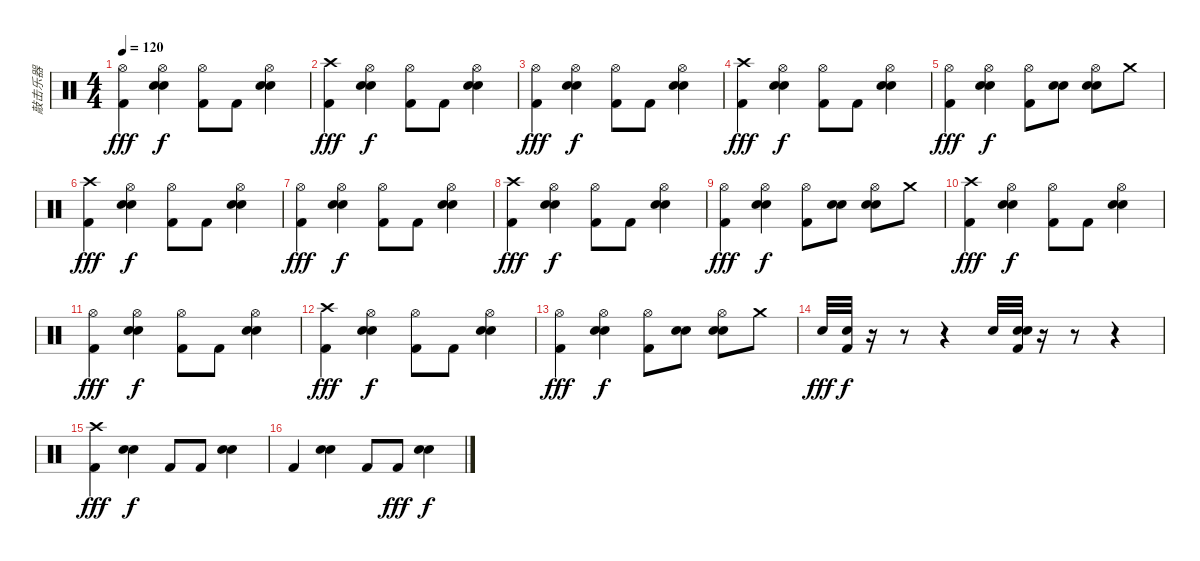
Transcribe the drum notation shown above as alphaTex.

\track ("敲击乐器" "敲击乐器") {instrument percussion}
\staff {score}
\articulation defaults
\ts (4 4)
\tempo 120
\clef neutral
\ks c
("Hi-Hat (open)" "Kick (hit) 2").4{dy fff} ("Hi-Hat (open)" "Electric Snare (hit)" "Metronome (bell)").4{dy f} ("Hi-Hat (open)" "Kick (hit) 2").8 "Kick (hit) 2".8 ("Hi-Hat (open)" "Electric Snare (hit)" "Metronome (bell)").4 |
("Crash high (hit)" "Kick (hit) 2").4{dy fff} ("Hi-Hat (open)" "Electric Snare (hit)" "Metronome (bell)").4{dy f} ("Hi-Hat (open)" "Kick (hit) 2").8 "Kick (hit) 2".8 ("Hi-Hat (open)" "Electric Snare (hit)" "Metronome (bell)").4 |
("Hi-Hat (open)" "Kick (hit) 2").4{dy fff} ("Hi-Hat (open)" "Electric Snare (hit)" "Metronome (bell)").4{dy f} ("Hi-Hat (open)" "Kick (hit) 2").8 "Kick (hit) 2".8 ("Hi-Hat (open)" "Electric Snare (hit)" "Metronome (bell)").4 |
("Crash high (hit)" "Kick (hit) 2").4{dy fff} ("Hi-Hat (open)" "Electric Snare (hit)" "Metronome (bell)").4{dy f} ("Hi-Hat (open)" "Kick (hit) 2").8 "Kick (hit) 2".8 ("Hi-Hat (open)" "Electric Snare (hit)" "Metronome (bell)").4 |
("Hi-Hat (open)" "Kick (hit) 2").4{dy fff} ("Hi-Hat (open)" "Electric Snare (hit)" "Metronome (bell)").4{dy f} ("Hi-Hat (open)" "Kick (hit) 2").8 ("Electric Snare (hit)" "Metronome (bell)").8 ("Hi-Hat (open)" "Electric Snare (hit)" "Metronome (bell)").8 "Crash medium (hit)".8 |
("Crash high (hit)" "Kick (hit) 2").4{dy fff} ("Hi-Hat (open)" "Electric Snare (hit)" "Metronome (bell)").4{dy f} ("Hi-Hat (open)" "Kick (hit) 2").8 "Kick (hit) 2".8 ("Hi-Hat (open)" "Electric Snare (hit)" "Metronome (bell)").4 |
("Hi-Hat (open)" "Kick (hit) 2").4{dy fff} ("Hi-Hat (open)" "Electric Snare (hit)" "Metronome (bell)").4{dy f} ("Hi-Hat (open)" "Kick (hit) 2").8 "Kick (hit) 2".8 ("Hi-Hat (open)" "Electric Snare (hit)" "Metronome (bell)").4 |
("Crash high (hit)" "Kick (hit) 2").4{dy fff} ("Hi-Hat (open)" "Electric Snare (hit)" "Metronome (bell)").4{dy f} ("Hi-Hat (open)" "Kick (hit) 2").8 "Kick (hit) 2".8 ("Hi-Hat (open)" "Electric Snare (hit)" "Metronome (bell)").4 |
("Hi-Hat (open)" "Kick (hit) 2").4{dy fff} ("Hi-Hat (open)" "Electric Snare (hit)" "Metronome (bell)").4{dy f} ("Hi-Hat (open)" "Kick (hit) 2").8 ("Electric Snare (hit)" "Metronome (bell)").8 ("Hi-Hat (open)" "Electric Snare (hit)" "Metronome (bell)").8 "Crash medium (hit)".8 |
("Crash high (hit)" "Kick (hit) 2").4{dy fff} ("Hi-Hat (open)" "Electric Snare (hit)" "Metronome (bell)").4{dy f} ("Hi-Hat (open)" "Kick (hit) 2").8 "Kick (hit) 2".8 ("Hi-Hat (open)" "Electric Snare (hit)" "Metronome (bell)").4 |
("Hi-Hat (open)" "Kick (hit) 2").4{dy fff} ("Hi-Hat (open)" "Electric Snare (hit)" "Metronome (bell)").4{dy f} ("Hi-Hat (open)" "Kick (hit) 2").8 "Kick (hit) 2".8 ("Hi-Hat (open)" "Electric Snare (hit)" "Metronome (bell)").4 |
("Crash high (hit)" "Kick (hit) 2").4{dy fff} ("Hi-Hat (open)" "Electric Snare (hit)" "Metronome (bell)").4{dy f} ("Hi-Hat (open)" "Kick (hit) 2").8 "Kick (hit) 2".8 ("Hi-Hat (open)" "Electric Snare (hit)" "Metronome (bell)").4 |
("Hi-Hat (open)" "Kick (hit) 2").4{dy fff} ("Hi-Hat (open)" "Electric Snare (hit)" "Metronome (bell)").4{dy f} ("Hi-Hat (open)" "Kick (hit) 2").8 ("Electric Snare (hit)" "Metronome (bell)").8 ("Hi-Hat (open)" "Electric Snare (hit)" "Metronome (bell)").8 "Crash medium (hit)".8 |
"Snare (hit) 2".32{dy fff} ("Electric Snare (hit)" "Kick (hit) 2").32{dy f} r.16 r.8 r.4 "Snare (hit) 2".32 ("Snare (hit) 2" "Electric Snare (hit)" "Kick (hit) 2").32 r.16 r.8 r.4 |
("Crash high (hit)" "Kick (hit) 2").4{dy fff} ("Electric Snare (hit)" "Metronome (bell)").4{dy f} "Kick (hit) 2".8 "Kick (hit) 2".8 ("Electric Snare (hit)" "Metronome (bell)").4 |
"Kick (hit) 2".4 ("Electric Snare (hit)" "Metronome (bell)").4 "Kick (hit) 2".8 "Kick (hit) 2".8{dy fff} ("Electric Snare (hit)" "Metronome (bell)").4{dy f}
